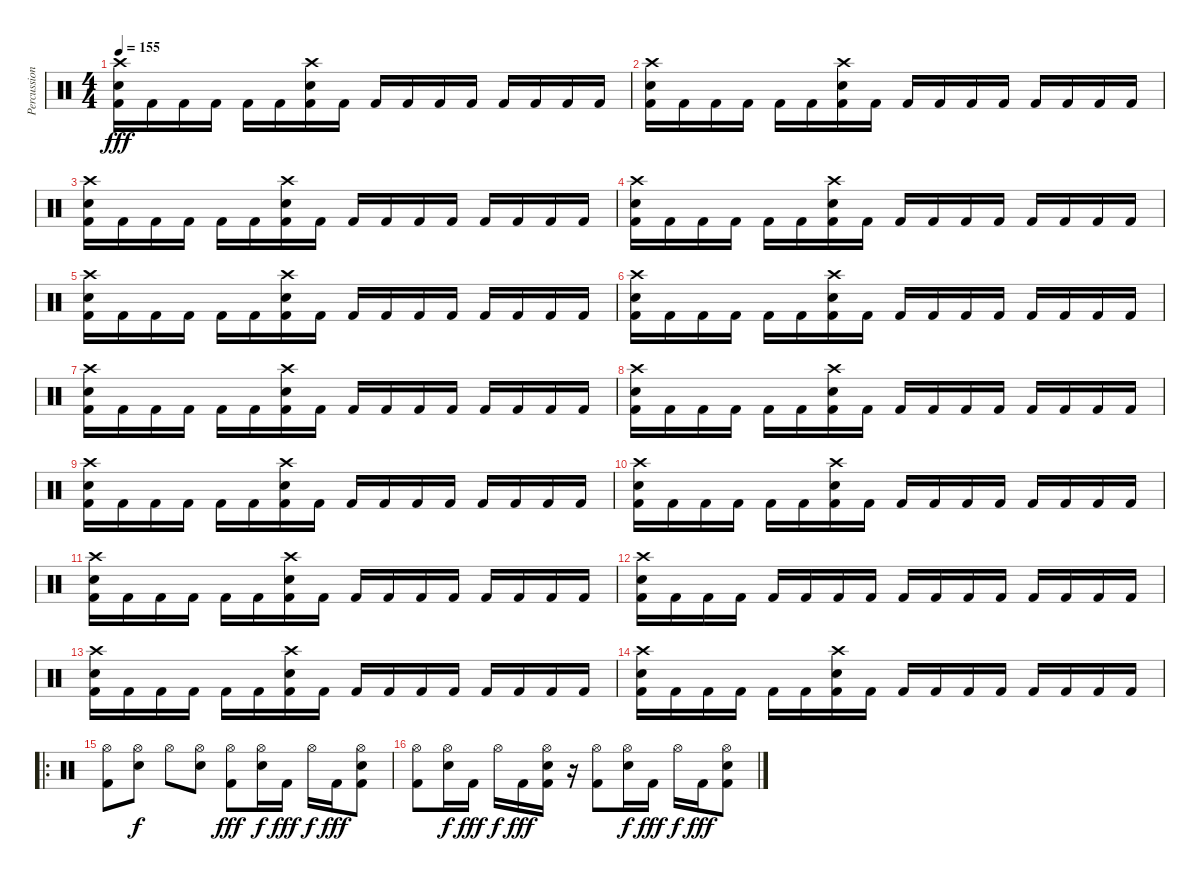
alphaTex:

\track ("Percussion" "Percussion") {instrument percussion}
\staff {score}
\articulation defaults
\ts (4 4)
\tempo 155
\clef neutral
\ks c
("Crash high (hit)" "Snare (hit) 2" "Kick (hit) 2").16{dy fff} "Kick (hit) 2".16 "Kick (hit) 2".16 "Kick (hit) 2".16 "Kick (hit) 2".16 "Kick (hit) 2".16 ("Crash high (hit)" "Snare (hit) 2" "Kick (hit) 2").16 "Kick (hit) 2".16 "Kick (hit) 2".16 "Kick (hit) 2".16 "Kick (hit) 2".16 "Kick (hit) 2".16 "Kick (hit) 2".16 "Kick (hit) 2".16 "Kick (hit) 2".16 "Kick (hit) 2".16 |
("Crash high (hit)" "Snare (hit) 2" "Kick (hit) 2").16 "Kick (hit) 2".16 "Kick (hit) 2".16 "Kick (hit) 2".16 "Kick (hit) 2".16 "Kick (hit) 2".16 ("Crash high (hit)" "Snare (hit) 2" "Kick (hit) 2").16 "Kick (hit) 2".16 "Kick (hit) 2".16 "Kick (hit) 2".16 "Kick (hit) 2".16 "Kick (hit) 2".16 "Kick (hit) 2".16 "Kick (hit) 2".16 "Kick (hit) 2".16 "Kick (hit) 2".16 |
("Crash high (hit)" "Snare (hit) 2" "Kick (hit) 2").16 "Kick (hit) 2".16 "Kick (hit) 2".16 "Kick (hit) 2".16 "Kick (hit) 2".16 "Kick (hit) 2".16 ("Crash high (hit)" "Snare (hit) 2" "Kick (hit) 2").16 "Kick (hit) 2".16 "Kick (hit) 2".16 "Kick (hit) 2".16 "Kick (hit) 2".16 "Kick (hit) 2".16 "Kick (hit) 2".16 "Kick (hit) 2".16 "Kick (hit) 2".16 "Kick (hit) 2".16 |
("Crash high (hit)" "Snare (hit) 2" "Kick (hit) 2").16 "Kick (hit) 2".16 "Kick (hit) 2".16 "Kick (hit) 2".16 "Kick (hit) 2".16 "Kick (hit) 2".16 ("Crash high (hit)" "Snare (hit) 2" "Kick (hit) 2").16 "Kick (hit) 2".16 "Kick (hit) 2".16 "Kick (hit) 2".16 "Kick (hit) 2".16 "Kick (hit) 2".16 "Kick (hit) 2".16 "Kick (hit) 2".16 "Kick (hit) 2".16 "Kick (hit) 2".16 |
("Crash high (hit)" "Snare (hit) 2" "Kick (hit) 2").16 "Kick (hit) 2".16 "Kick (hit) 2".16 "Kick (hit) 2".16 "Kick (hit) 2".16 "Kick (hit) 2".16 ("Crash high (hit)" "Snare (hit) 2" "Kick (hit) 2").16 "Kick (hit) 2".16 "Kick (hit) 2".16 "Kick (hit) 2".16 "Kick (hit) 2".16 "Kick (hit) 2".16 "Kick (hit) 2".16 "Kick (hit) 2".16 "Kick (hit) 2".16 "Kick (hit) 2".16 |
("Crash high (hit)" "Snare (hit) 2" "Kick (hit) 2").16 "Kick (hit) 2".16 "Kick (hit) 2".16 "Kick (hit) 2".16 "Kick (hit) 2".16 "Kick (hit) 2".16 ("Crash high (hit)" "Snare (hit) 2" "Kick (hit) 2").16 "Kick (hit) 2".16 "Kick (hit) 2".16 "Kick (hit) 2".16 "Kick (hit) 2".16 "Kick (hit) 2".16 "Kick (hit) 2".16 "Kick (hit) 2".16 "Kick (hit) 2".16 "Kick (hit) 2".16 |
("Crash high (hit)" "Snare (hit) 2" "Kick (hit) 2").16 "Kick (hit) 2".16 "Kick (hit) 2".16 "Kick (hit) 2".16 "Kick (hit) 2".16 "Kick (hit) 2".16 ("Crash high (hit)" "Snare (hit) 2" "Kick (hit) 2").16 "Kick (hit) 2".16 "Kick (hit) 2".16 "Kick (hit) 2".16 "Kick (hit) 2".16 "Kick (hit) 2".16 "Kick (hit) 2".16 "Kick (hit) 2".16 "Kick (hit) 2".16 "Kick (hit) 2".16 |
("Crash high (hit)" "Snare (hit) 2" "Kick (hit) 2").16 "Kick (hit) 2".16 "Kick (hit) 2".16 "Kick (hit) 2".16 "Kick (hit) 2".16 "Kick (hit) 2".16 ("Crash high (hit)" "Snare (hit) 2" "Kick (hit) 2").16 "Kick (hit) 2".16 "Kick (hit) 2".16 "Kick (hit) 2".16 "Kick (hit) 2".16 "Kick (hit) 2".16 "Kick (hit) 2".16 "Kick (hit) 2".16 "Kick (hit) 2".16 "Kick (hit) 2".16 |
("Crash high (hit)" "Snare (hit) 2" "Kick (hit) 2").16 "Kick (hit) 2".16 "Kick (hit) 2".16 "Kick (hit) 2".16 "Kick (hit) 2".16 "Kick (hit) 2".16 ("Crash high (hit)" "Snare (hit) 2" "Kick (hit) 2").16 "Kick (hit) 2".16 "Kick (hit) 2".16 "Kick (hit) 2".16 "Kick (hit) 2".16 "Kick (hit) 2".16 "Kick (hit) 2".16 "Kick (hit) 2".16 "Kick (hit) 2".16 "Kick (hit) 2".16 |
("Crash high (hit)" "Snare (hit) 2" "Kick (hit) 2").16 "Kick (hit) 2".16 "Kick (hit) 2".16 "Kick (hit) 2".16 "Kick (hit) 2".16 "Kick (hit) 2".16 ("Crash high (hit)" "Snare (hit) 2" "Kick (hit) 2").16 "Kick (hit) 2".16 "Kick (hit) 2".16 "Kick (hit) 2".16 "Kick (hit) 2".16 "Kick (hit) 2".16 "Kick (hit) 2".16 "Kick (hit) 2".16 "Kick (hit) 2".16 "Kick (hit) 2".16 |
("Crash high (hit)" "Snare (hit) 2" "Kick (hit) 2").16 "Kick (hit) 2".16 "Kick (hit) 2".16 "Kick (hit) 2".16 "Kick (hit) 2".16 "Kick (hit) 2".16 ("Crash high (hit)" "Snare (hit) 2" "Kick (hit) 2").16 "Kick (hit) 2".16 "Kick (hit) 2".16 "Kick (hit) 2".16 "Kick (hit) 2".16 "Kick (hit) 2".16 "Kick (hit) 2".16 "Kick (hit) 2".16 "Kick (hit) 2".16 "Kick (hit) 2".16 |
("Crash high (hit)" "Snare (hit) 2" "Kick (hit) 2").16 "Kick (hit) 2".16 "Kick (hit) 2".16 "Kick (hit) 2".16 "Kick (hit) 2".16 "Kick (hit) 2".16 "Kick (hit) 2".16 "Kick (hit) 2".16 "Kick (hit) 2".16 "Kick (hit) 2".16 "Kick (hit) 2".16 "Kick (hit) 2".16 "Kick (hit) 2".16 "Kick (hit) 2".16 "Kick (hit) 2".16 "Kick (hit) 2".16 |
("Crash high (hit)" "Snare (hit) 2" "Kick (hit) 2").16 "Kick (hit) 2".16 "Kick (hit) 2".16 "Kick (hit) 2".16 "Kick (hit) 2".16 "Kick (hit) 2".16 ("Crash high (hit)" "Snare (hit) 2" "Kick (hit) 2").16 "Kick (hit) 2".16 "Kick (hit) 2".16 "Kick (hit) 2".16 "Kick (hit) 2".16 "Kick (hit) 2".16 "Kick (hit) 2".16 "Kick (hit) 2".16 "Kick (hit) 2".16 "Kick (hit) 2".16 |
("Crash high (hit)" "Snare (hit) 2" "Kick (hit) 2").16 "Kick (hit) 2".16 "Kick (hit) 2".16 "Kick (hit) 2".16 "Kick (hit) 2".16 "Kick (hit) 2".16 ("Crash high (hit)" "Snare (hit) 2" "Kick (hit) 2").16 "Kick (hit) 2".16 "Kick (hit) 2".16 "Kick (hit) 2".16 "Kick (hit) 2".16 "Kick (hit) 2".16 "Kick (hit) 2".16 "Kick (hit) 2".16 "Kick (hit) 2".16 "Kick (hit) 2".16 |
\ro
("Hi-Hat (open)" "Kick (hit) 2").8 ("Hi-Hat (open)" "Snare (hit) 2").8{dy f} "Hi-Hat (open)".8 ("Hi-Hat (open)" "Snare (hit) 2").8 ("Hi-Hat (open)" "Kick (hit) 2").8{dy fff} ("Hi-Hat (open)" "Snare (hit) 2").16{dy f} "Kick (hit) 2".16{dy fff} "Hi-Hat (open)".16{dy f} "Kick (hit) 2".16{dy fff} ("Hi-Hat (open)" "Snare (hit) 2" "Kick (hit) 2").8 |
("Hi-Hat (open)" "Kick (hit) 2").8 ("Hi-Hat (open)" "Snare (hit) 2").16{dy f} "Kick (hit) 2".16{dy fff} "Hi-Hat (open)".16{dy f} "Kick (hit) 2".16{dy fff} ("Hi-Hat (open)" "Snare (hit) 2" "Kick (hit) 2").16 r.16 ("Hi-Hat (open)" "Kick (hit) 2").8 ("Hi-Hat (open)" "Snare (hit) 2").16{dy f} "Kick (hit) 2".16{dy fff} "Hi-Hat (open)".16{dy f} "Kick (hit) 2".16{dy fff} ("Hi-Hat (open)" "Snare (hit) 2" "Kick (hit) 2").8
